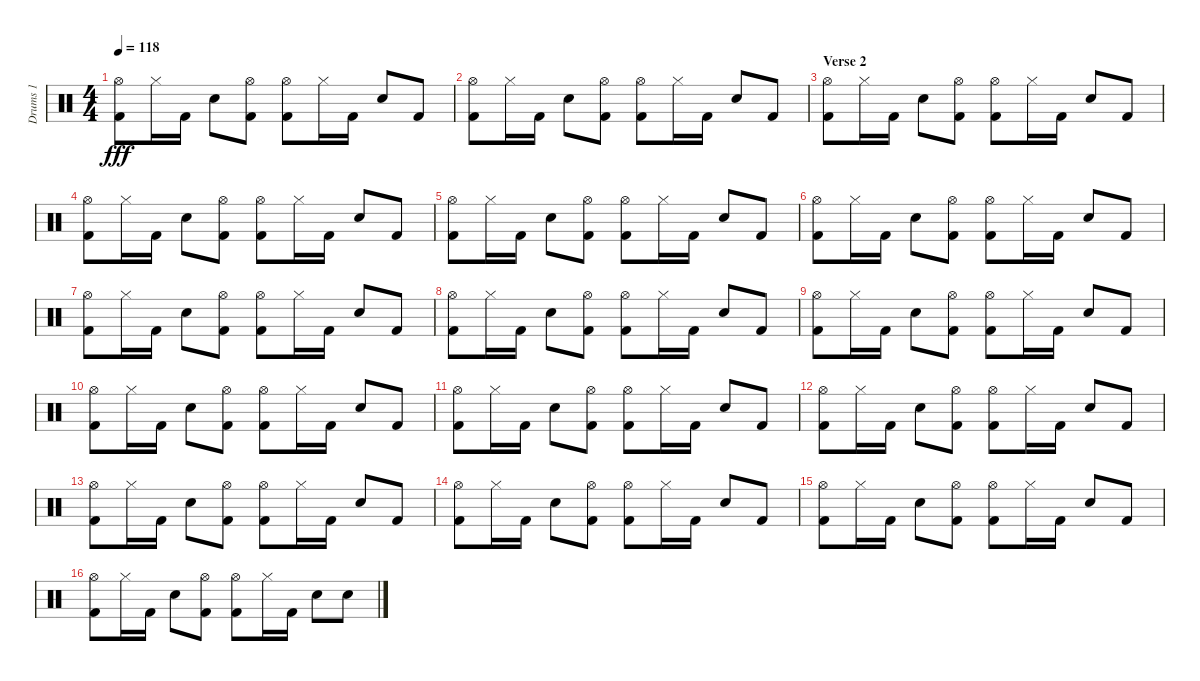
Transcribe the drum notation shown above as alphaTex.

\track ("Drums 1" "Drums 1") {instrument percussion}
\staff {score}
\articulation defaults
\ts (4 4)
\tempo 118
\clef neutral
\ks c
("Hi-Hat (open)" "Kick (hit) 2").8{dy fff} "Hi-Hat (closed)".16 "Kick (hit) 2".16 "Electric Snare (hit)".8 ("Hi-Hat (open)" "Kick (hit) 2").8 ("Hi-Hat (open)" "Kick (hit) 2").8 "Hi-Hat (closed)".16 "Kick (hit) 2".16 "Electric Snare (hit)".8 "Kick (hit) 2".8 |
("Hi-Hat (open)" "Kick (hit) 2").8 "Hi-Hat (closed)".16 "Kick (hit) 2".16 "Electric Snare (hit)".8 ("Hi-Hat (open)" "Kick (hit) 2").8 ("Hi-Hat (open)" "Kick (hit) 2").8 "Hi-Hat (closed)".16 "Kick (hit) 2".16 "Electric Snare (hit)".8 "Kick (hit) 2".8 |
\section ("" "Verse 2")
("Hi-Hat (open)" "Kick (hit) 2").8 "Hi-Hat (closed)".16 "Kick (hit) 2".16 "Electric Snare (hit)".8 ("Hi-Hat (open)" "Kick (hit) 2").8 ("Hi-Hat (open)" "Kick (hit) 2").8 "Hi-Hat (closed)".16 "Kick (hit) 2".16 "Electric Snare (hit)".8 "Kick (hit) 2".8 |
("Hi-Hat (open)" "Kick (hit) 2").8 "Hi-Hat (closed)".16 "Kick (hit) 2".16 "Electric Snare (hit)".8 ("Hi-Hat (open)" "Kick (hit) 2").8 ("Hi-Hat (open)" "Kick (hit) 2").8 "Hi-Hat (closed)".16 "Kick (hit) 2".16 "Electric Snare (hit)".8 "Kick (hit) 2".8 |
("Hi-Hat (open)" "Kick (hit) 2").8 "Hi-Hat (closed)".16 "Kick (hit) 2".16 "Electric Snare (hit)".8 ("Hi-Hat (open)" "Kick (hit) 2").8 ("Hi-Hat (open)" "Kick (hit) 2").8 "Hi-Hat (closed)".16 "Kick (hit) 2".16 "Electric Snare (hit)".8 "Kick (hit) 2".8 |
("Hi-Hat (open)" "Kick (hit) 2").8 "Hi-Hat (closed)".16 "Kick (hit) 2".16 "Electric Snare (hit)".8 ("Hi-Hat (open)" "Kick (hit) 2").8 ("Hi-Hat (open)" "Kick (hit) 2").8 "Hi-Hat (closed)".16 "Kick (hit) 2".16 "Electric Snare (hit)".8 "Kick (hit) 2".8 |
("Hi-Hat (open)" "Kick (hit) 2").8 "Hi-Hat (closed)".16 "Kick (hit) 2".16 "Electric Snare (hit)".8 ("Hi-Hat (open)" "Kick (hit) 2").8 ("Hi-Hat (open)" "Kick (hit) 2").8 "Hi-Hat (closed)".16 "Kick (hit) 2".16 "Electric Snare (hit)".8 "Kick (hit) 2".8 |
("Hi-Hat (open)" "Kick (hit) 2").8 "Hi-Hat (closed)".16 "Kick (hit) 2".16 "Electric Snare (hit)".8 ("Hi-Hat (open)" "Kick (hit) 2").8 ("Hi-Hat (open)" "Kick (hit) 2").8 "Hi-Hat (closed)".16 "Kick (hit) 2".16 "Electric Snare (hit)".8 "Kick (hit) 2".8 |
("Hi-Hat (open)" "Kick (hit) 2").8 "Hi-Hat (closed)".16 "Kick (hit) 2".16 "Electric Snare (hit)".8 ("Hi-Hat (open)" "Kick (hit) 2").8 ("Hi-Hat (open)" "Kick (hit) 2").8 "Hi-Hat (closed)".16 "Kick (hit) 2".16 "Electric Snare (hit)".8 "Kick (hit) 2".8 |
("Hi-Hat (open)" "Kick (hit) 2").8 "Hi-Hat (closed)".16 "Kick (hit) 2".16 "Electric Snare (hit)".8 ("Hi-Hat (open)" "Kick (hit) 2").8 ("Hi-Hat (open)" "Kick (hit) 2").8 "Hi-Hat (closed)".16 "Kick (hit) 2".16 "Electric Snare (hit)".8 "Kick (hit) 2".8 |
("Hi-Hat (open)" "Kick (hit) 2").8 "Hi-Hat (closed)".16 "Kick (hit) 2".16 "Electric Snare (hit)".8 ("Hi-Hat (open)" "Kick (hit) 2").8 ("Hi-Hat (open)" "Kick (hit) 2").8 "Hi-Hat (closed)".16 "Kick (hit) 2".16 "Electric Snare (hit)".8 "Kick (hit) 2".8 |
("Hi-Hat (open)" "Kick (hit) 2").8 "Hi-Hat (closed)".16 "Kick (hit) 2".16 "Electric Snare (hit)".8 ("Hi-Hat (open)" "Kick (hit) 2").8 ("Hi-Hat (open)" "Kick (hit) 2").8 "Hi-Hat (closed)".16 "Kick (hit) 2".16 "Electric Snare (hit)".8 "Kick (hit) 2".8 |
("Hi-Hat (open)" "Kick (hit) 2").8 "Hi-Hat (closed)".16 "Kick (hit) 2".16 "Electric Snare (hit)".8 ("Hi-Hat (open)" "Kick (hit) 2").8 ("Hi-Hat (open)" "Kick (hit) 2").8 "Hi-Hat (closed)".16 "Kick (hit) 2".16 "Electric Snare (hit)".8 "Kick (hit) 2".8 |
("Hi-Hat (open)" "Kick (hit) 2").8 "Hi-Hat (closed)".16 "Kick (hit) 2".16 "Electric Snare (hit)".8 ("Hi-Hat (open)" "Kick (hit) 2").8 ("Hi-Hat (open)" "Kick (hit) 2").8 "Hi-Hat (closed)".16 "Kick (hit) 2".16 "Electric Snare (hit)".8 "Kick (hit) 2".8 |
("Hi-Hat (open)" "Kick (hit) 2").8 "Hi-Hat (closed)".16 "Kick (hit) 2".16 "Electric Snare (hit)".8 ("Hi-Hat (open)" "Kick (hit) 2").8 ("Hi-Hat (open)" "Kick (hit) 2").8 "Hi-Hat (closed)".16 "Kick (hit) 2".16 "Electric Snare (hit)".8 "Kick (hit) 2".8 |
("Hi-Hat (open)" "Kick (hit) 2").8 "Hi-Hat (closed)".16 "Kick (hit) 2".16 "Electric Snare (hit)".8 ("Hi-Hat (open)" "Kick (hit) 2").8 ("Hi-Hat (open)" "Kick (hit) 2").8 "Hi-Hat (closed)".16 "Kick (hit) 2".16 "Electric Snare (hit)".8 "Electric Snare (hit)".8
